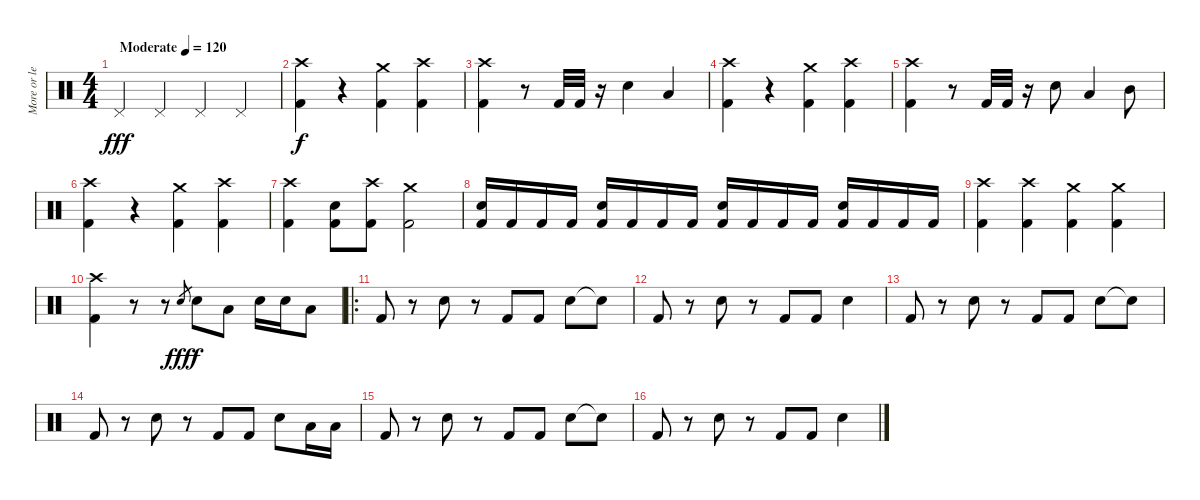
\track ("More or less Drumming" "More or le") {instrument percussion}
\staff {score}
\articulation defaults
\ts (4 4)
\tempo (120 "Moderate")
\clef neutral
\ks c "Pedal Hi-Hat (hit)".4{dy fff} "Pedal Hi-Hat (hit)".4 "Pedal Hi-Hat (hit)".4 "Pedal Hi-Hat (hit)".4
|
("Kick (hit) 2" "Crash high (hit)").4{dy f} r.4 ("Kick (hit) 2" "Crash medium (hit)").4 ("Kick (hit) 2" "Crash high (hit)").4 |
("Kick (hit) 2" "Crash high (hit)").4 r.8 "Kick (hit) 2".32 "Kick (hit) 2".32 r.16 "Electric Snare (hit)".4 "Low Tom (hit)".4 |
("Kick (hit) 2" "Crash high (hit)").4 r.4 ("Kick (hit) 2" "Crash medium (hit)").4 ("Kick (hit) 2" "Crash high (hit)").4 |
("Kick (hit) 2" "Crash high (hit)").4 r.8 "Kick (hit) 2".32 "Kick (hit) 2".32 r.16 "Electric Snare (hit)".8 "Low Tom (hit)".4 "Mid Tom (hit)".8 |
("Kick (hit) 2" "Crash high (hit)").4 r.4 ("Kick (hit) 2" "Crash medium (hit)").4 ("Kick (hit) 2" "Crash high (hit)").4 |
("Kick (hit) 2" "Crash high (hit)").4 ("Kick (hit) 2" "Electric Snare (hit)").8 ("Kick (hit) 2" "Crash high (hit)").8 ("Kick (hit) 2" "Crash medium (hit)").2 |
("Kick (hit) 2" "Electric Snare (hit)").16 "Kick (hit) 2".16 "Kick (hit) 2".16 "Kick (hit) 2".16 ("Kick (hit) 2" "Electric Snare (hit)").16 "Kick (hit) 2".16 "Kick (hit) 2".16 "Kick (hit) 2".16 ("Kick (hit) 2" "Electric Snare (hit)").16 "Kick (hit) 2".16 "Kick (hit) 2".16 "Kick (hit) 2".16 ("Kick (hit) 2" "Electric Snare (hit)").16 "Kick (hit) 2".16 "Kick (hit) 2".16 "Kick (hit) 2".16 |
("Kick (hit) 2" "Crash high (hit)").4 ("Kick (hit) 2" "Crash high (hit)").4 ("Kick (hit) 2" "Crash medium (hit)").4 ("Kick (hit) 2" "Crash medium (hit)").4 |
("Kick (hit) 2" "Crash high (hit)").4 r.8 r.8 "Electric Snare (hit)"{sl}.8{gr dy fff} "Electric Snare (hit)".8{dy f} "Low Tom (hit)".8 "Electric Snare (hit)".16 "Electric Snare (hit)".16 "Low Tom (hit)".8 |
\ro "Kick (hit) 2".8
r.8 "Electric Snare (hit)".8 r.8 "Kick (hit) 2".8 "Kick (hit) 2".8 "Electric Snare (hit)".8 "Snare (hit)"{t}.8 |
"Kick (hit) 2".8 r.8 "Electric Snare (hit)".8 r.8 "Kick (hit) 2".8 "Kick (hit) 2".8 "Electric Snare (hit)".4 |
"Kick (hit) 2".8 r.8 "Electric Snare (hit)".8 r.8 "Kick (hit) 2".8 "Kick (hit) 2".8 "Electric Snare (hit)".8 "Snare (hit)"{t}.8 |
"Kick (hit) 2".8 r.8 "Electric Snare (hit)".8 r.8 "Kick (hit) 2".8 "Kick (hit) 2".8 "Electric Snare (hit)".8 "Low Tom (hit)".16 "Low Tom (hit)".16 |
"Kick (hit) 2".8 r.8 "Electric Snare (hit)".8 r.8 "Kick (hit) 2".8 "Kick (hit) 2".8 "Electric Snare (hit)".8 "Snare (hit)"{t}.8 |
"Kick (hit) 2".8 r.8 "Electric Snare (hit)".8 r.8 "Kick (hit) 2".8 "Kick (hit) 2".8 "Electric Snare (hit)".4
